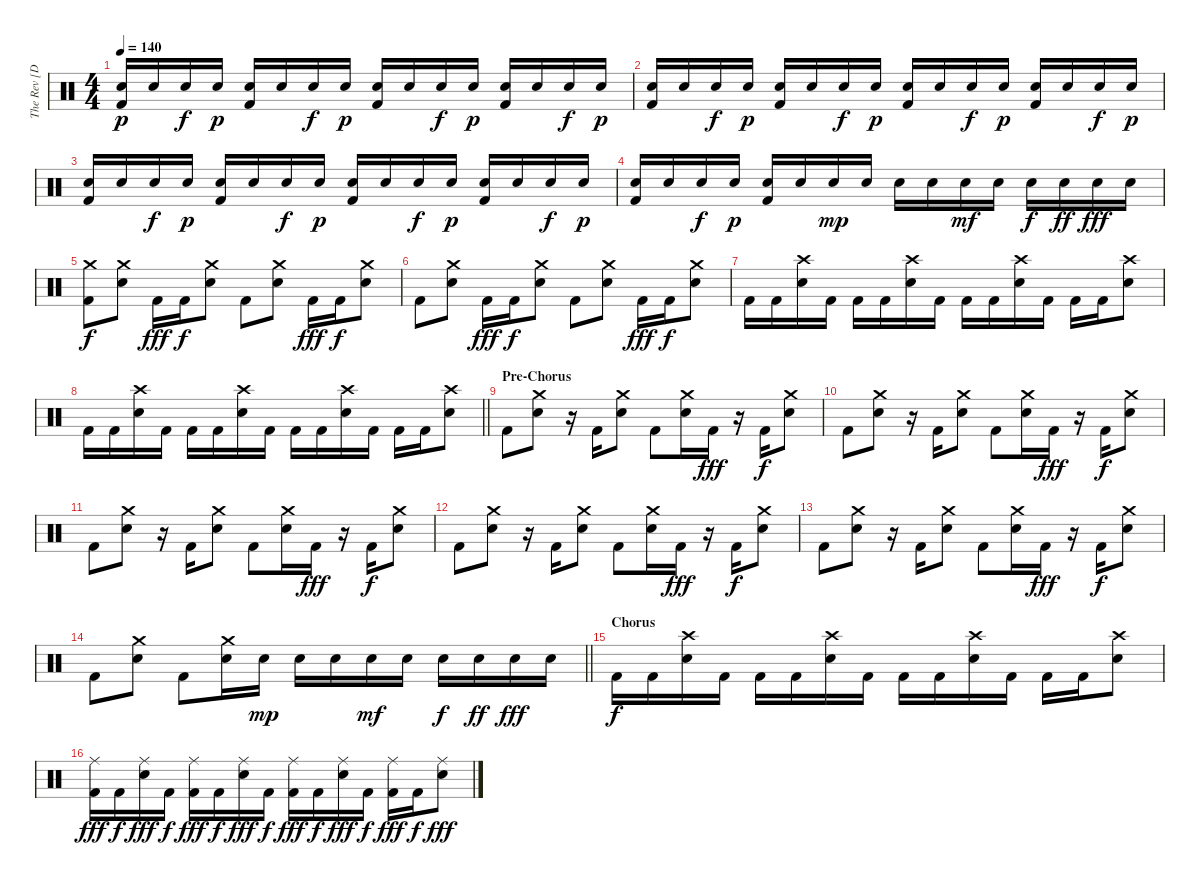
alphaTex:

\track ("The Rev [Drum]" "The Rev [D") {instrument percussion}
\staff {score}
\articulation defaults
\ts (4 4)
\tempo 140
\clef neutral
\ks c
("Snare (hit) 2" "Kick (hit) 2").16{dy p} "Snare (hit) 2".16 "Snare (hit) 2".16{dy f} "Snare (hit) 2".16{dy p} ("Snare (hit) 2" "Kick (hit) 2").16 "Snare (hit) 2".16 "Snare (hit) 2".16{dy f} "Snare (hit) 2".16{dy p} ("Snare (hit) 2" "Kick (hit) 2").16 "Snare (hit) 2".16 "Snare (hit) 2".16{dy f} "Snare (hit) 2".16{dy p} ("Snare (hit) 2" "Kick (hit) 2").16 "Snare (hit) 2".16 "Snare (hit) 2".16{dy f} "Snare (hit) 2".16{dy p} |
("Snare (hit) 2" "Kick (hit) 2").16 "Snare (hit) 2".16 "Snare (hit) 2".16{dy f} "Snare (hit) 2".16{dy p} ("Snare (hit) 2" "Kick (hit) 2").16 "Snare (hit) 2".16 "Snare (hit) 2".16{dy f} "Snare (hit) 2".16{dy p} ("Snare (hit) 2" "Kick (hit) 2").16 "Snare (hit) 2".16 "Snare (hit) 2".16{dy f} "Snare (hit) 2".16{dy p} ("Snare (hit) 2" "Kick (hit) 2").16 "Snare (hit) 2".16 "Snare (hit) 2".16{dy f} "Snare (hit) 2".16{dy p} |
("Snare (hit) 2" "Kick (hit) 2").16 "Snare (hit) 2".16 "Snare (hit) 2".16{dy f} "Snare (hit) 2".16{dy p} ("Snare (hit) 2" "Kick (hit) 2").16 "Snare (hit) 2".16 "Snare (hit) 2".16{dy f} "Snare (hit) 2".16{dy p} ("Snare (hit) 2" "Kick (hit) 2").16 "Snare (hit) 2".16 "Snare (hit) 2".16{dy f} "Snare (hit) 2".16{dy p} ("Snare (hit) 2" "Kick (hit) 2").16 "Snare (hit) 2".16 "Snare (hit) 2".16{dy f} "Snare (hit) 2".16{dy p} |
("Snare (hit) 2" "Kick (hit) 2").16 "Snare (hit) 2".16 "Snare (hit) 2".16{dy f} "Snare (hit) 2".16{dy p} ("Snare (hit) 2" "Kick (hit) 2").16 "Snare (hit) 2".16 "Snare (hit) 2".16{dy mp} "Snare (hit) 2".16 "Snare (hit) 2".16 "Snare (hit) 2".16 "Snare (hit) 2".16{dy mf} "Snare (hit) 2".16 "Snare (hit) 2".16{dy f} "Snare (hit) 2".16{dy ff} "Snare (hit) 2".16{dy fff} "Snare (hit) 2".16 |
("Crash medium (hit)" "Kick (hit) 2").8{dy f} ("Crash medium (hit)" "Snare (hit) 2").8 "Kick (hit) 2".16{dy fff} "Kick (hit) 2".16{dy f} ("Crash medium (hit)" "Snare (hit) 2").8 "Kick (hit) 2".8 ("Crash medium (hit)" "Snare (hit) 2").8 "Kick (hit) 2".16{dy fff} "Kick (hit) 2".16{dy f} ("Crash medium (hit)" "Snare (hit) 2").8 |
"Kick (hit) 2".8 ("Crash medium (hit)" "Snare (hit) 2").8 "Kick (hit) 2".16{dy fff} "Kick (hit) 2".16{dy f} ("Crash medium (hit)" "Snare (hit) 2").8 "Kick (hit) 2".8 ("Crash medium (hit)" "Snare (hit) 2").8 "Kick (hit) 2".16{dy fff} "Kick (hit) 2".16{dy f} ("Crash medium (hit)" "Snare (hit) 2").8 |
"Kick (hit) 2".16 "Kick (hit) 2".16 ("Crash high (hit)" "Snare (hit) 2").16 "Kick (hit) 2".16 "Kick (hit) 2".16 "Kick (hit) 2".16 ("Crash high (hit)" "Snare (hit) 2").16 "Kick (hit) 2".16 "Kick (hit) 2".16 "Kick (hit) 2".16 ("Crash high (hit)" "Snare (hit) 2").16 "Kick (hit) 2".16 "Kick (hit) 2".16 "Kick (hit) 2".16 ("Crash high (hit)" "Snare (hit) 2").8 |
\barLineRight lightlight "Kick (hit) 2".16 "Kick (hit) 2".16
("Crash high (hit)" "Snare (hit) 2").16 "Kick (hit) 2".16 "Kick (hit) 2".16 "Kick (hit) 2".16 ("Crash high (hit)" "Snare (hit) 2").16 "Kick (hit) 2".16 "Kick (hit) 2".16 "Kick (hit) 2".16 ("Crash high (hit)" "Snare (hit) 2").16 "Kick (hit) 2".16 "Kick (hit) 2".16 "Kick (hit) 2".16 ("Crash high (hit)" "Snare (hit) 2").8 |
\section ("" "Pre-Chorus")
"Kick (hit) 2".8 ("Crash medium (hit)" "Snare (hit) 2").8 r.16 "Kick (hit) 2".16 ("Crash medium (hit)" "Snare (hit) 2").8 "Kick (hit) 2".8 ("Crash medium (hit)" "Snare (hit) 2").16 "Kick (hit) 2".16{dy fff} r.16 "Kick (hit) 2".16{dy f} ("Crash medium (hit)" "Snare (hit) 2").8 |
"Kick (hit) 2".8 ("Crash medium (hit)" "Snare (hit) 2").8 r.16 "Kick (hit) 2".16 ("Crash medium (hit)" "Snare (hit) 2").8 "Kick (hit) 2".8 ("Crash medium (hit)" "Snare (hit) 2").16 "Kick (hit) 2".16{dy fff} r.16 "Kick (hit) 2".16{dy f} ("Crash medium (hit)" "Snare (hit) 2").8 |
"Kick (hit) 2".8 ("Crash medium (hit)" "Snare (hit) 2").8 r.16 "Kick (hit) 2".16 ("Crash medium (hit)" "Snare (hit) 2").8 "Kick (hit) 2".8 ("Crash medium (hit)" "Snare (hit) 2").16 "Kick (hit) 2".16{dy fff} r.16 "Kick (hit) 2".16{dy f} ("Crash medium (hit)" "Snare (hit) 2").8 |
"Kick (hit) 2".8 ("Crash medium (hit)" "Snare (hit) 2").8 r.16 "Kick (hit) 2".16 ("Crash medium (hit)" "Snare (hit) 2").8 "Kick (hit) 2".8 ("Crash medium (hit)" "Snare (hit) 2").16 "Kick (hit) 2".16{dy fff} r.16 "Kick (hit) 2".16{dy f} ("Crash medium (hit)" "Snare (hit) 2").8 |
"Kick (hit) 2".8 ("Crash medium (hit)" "Snare (hit) 2").8 r.16 "Kick (hit) 2".16 ("Crash medium (hit)" "Snare (hit) 2").8 "Kick (hit) 2".8 ("Crash medium (hit)" "Snare (hit) 2").16 "Kick (hit) 2".16{dy fff} r.16 "Kick (hit) 2".16{dy f} ("Crash medium (hit)" "Snare (hit) 2").8 |
\barLineRight lightlight "Kick (hit) 2".8
("Crash medium (hit)" "Snare (hit) 2").8 "Kick (hit) 2".8 ("Crash medium (hit)" "Snare (hit) 2").16 "Snare (hit) 2".16{dy mp} "Snare (hit) 2".16 "Snare (hit) 2".16 "Snare (hit) 2".16{dy mf} "Snare (hit) 2".16 "Snare (hit) 2".16{dy f} "Snare (hit) 2".16{dy ff} "Snare (hit) 2".16{dy fff} "Snare (hit) 2".16 |
\section ("" "Chorus")
"Kick (hit) 2".16{dy f} "Kick (hit) 2".16 ("Crash high (hit)" "Snare (hit) 2").16 "Kick (hit) 2".16 "Kick (hit) 2".16 "Kick (hit) 2".16 ("Crash high (hit)" "Snare (hit) 2").16 "Kick (hit) 2".16 "Kick (hit) 2".16 "Kick (hit) 2".16 ("Crash high (hit)" "Snare (hit) 2").16 "Kick (hit) 2".16 "Kick (hit) 2".16 "Kick (hit) 2".16 ("Crash high (hit)" "Snare (hit) 2").8 |
("Ride (middle)" "Kick (hit) 2").16{dy fff} "Kick (hit) 2".16{dy f} ("Ride (middle)" "Snare (hit) 2").16{dy fff} "Kick (hit) 2".16{dy f} ("Ride (middle)" "Kick (hit) 2").16{dy fff} "Kick (hit) 2".16{dy f} ("Ride (middle)" "Snare (hit) 2").16{dy fff} "Kick (hit) 2".16{dy f} ("Ride (middle)" "Kick (hit) 2").16{dy fff} "Kick (hit) 2".16{dy f} ("Ride (middle)" "Snare (hit) 2").16{dy fff} "Kick (hit) 2".16{dy f} ("Ride (middle)" "Kick (hit) 2").16{dy fff} "Kick (hit) 2".16{dy f} ("Ride (middle)" "Snare (hit) 2").8{dy fff}
